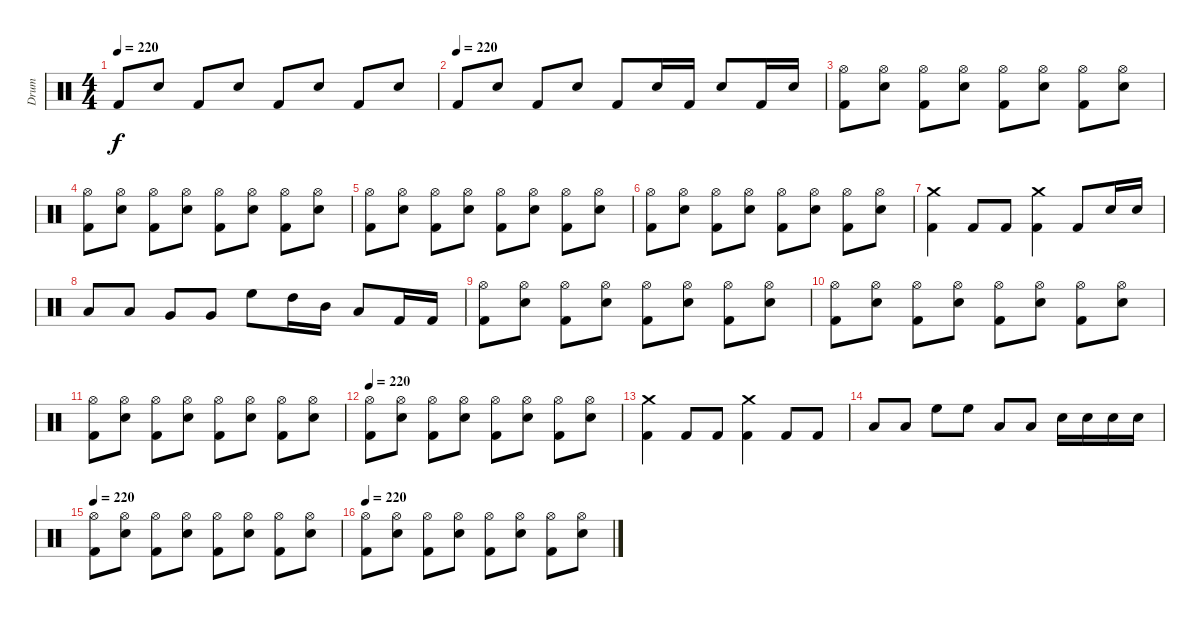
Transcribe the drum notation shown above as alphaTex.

\track ("Drum" "Drum") {instrument percussion}
\staff {score}
\articulation defaults
\ts (4 4)
\tempo 220
\clef neutral
\ks c "Kick (hit) 2".8{dy f} "Snare (hit) 2".8 "Kick (hit) 2".8 "Snare (hit) 2".8 "Kick (hit) 2".8 "Snare (hit) 2".8 "Kick (hit) 2".8 "Snare (hit) 2".8
|
\tempo (220)
"Kick (hit) 2".8 "Snare (hit) 2".8 "Kick (hit) 2".8 "Snare (hit) 2".8 "Kick (hit) 2".8 "Snare (hit) 2".16 "Kick (hit) 2".16 "Snare (hit) 2".8 "Kick (hit) 2".16 "Snare (hit) 2".16 |
("Hi-Hat (open)" "Kick (hit) 2").8 ("Hi-Hat (open)" "Snare (hit) 2").8 ("Hi-Hat (open)" "Kick (hit) 2").8 ("Hi-Hat (open)" "Snare (hit) 2").8 ("Hi-Hat (open)" "Kick (hit) 2").8 ("Hi-Hat (open)" "Snare (hit) 2").8 ("Hi-Hat (open)" "Kick (hit) 2").8 ("Hi-Hat (open)" "Snare (hit) 2").8 |
("Hi-Hat (open)" "Kick (hit) 2").8 ("Hi-Hat (open)" "Snare (hit) 2").8 ("Hi-Hat (open)" "Kick (hit) 2").8 ("Hi-Hat (open)" "Snare (hit) 2").8 ("Hi-Hat (open)" "Kick (hit) 2").8 ("Hi-Hat (open)" "Snare (hit) 2").8 ("Hi-Hat (open)" "Kick (hit) 2").8 ("Hi-Hat (open)" "Snare (hit) 2").8 |
("Hi-Hat (open)" "Kick (hit) 2").8 ("Hi-Hat (open)" "Snare (hit) 2").8 ("Hi-Hat (open)" "Kick (hit) 2").8 ("Hi-Hat (open)" "Snare (hit) 2").8 ("Hi-Hat (open)" "Kick (hit) 2").8 ("Hi-Hat (open)" "Snare (hit) 2").8 ("Hi-Hat (open)" "Kick (hit) 2").8 ("Hi-Hat (open)" "Snare (hit) 2").8 |
("Hi-Hat (open)" "Kick (hit) 2").8 ("Hi-Hat (open)" "Snare (hit) 2").8 ("Hi-Hat (open)" "Kick (hit) 2").8 ("Hi-Hat (open)" "Snare (hit) 2").8 ("Hi-Hat (open)" "Kick (hit) 2").8 ("Hi-Hat (open)" "Snare (hit) 2").8 ("Hi-Hat (open)" "Kick (hit) 2").8 ("Hi-Hat (open)" "Snare (hit) 2").8 |
("Crash medium (hit)" "Kick (hit) 2").4 "Kick (hit) 2".8 "Kick (hit) 2".8 ("Crash medium (hit)" "Kick (hit) 2").4 "Kick (hit) 2".8 "Snare (hit) 2".16 "Snare (hit) 2".16 |
"Low Floor Tom (hit)".8 "Low Floor Tom (hit)".8 "Very Low Tom (hit)".8 "Very Low Tom (hit)".8 "High Floor Tom (hit)".8 "High Tom (hit)".16 "Mid Tom (hit)".16 "Low Tom (hit)".8 "Kick (hit) 2".16 "Kick (hit) 2".16 |
("Hi-Hat (open)" "Kick (hit) 2").8 ("Hi-Hat (open)" "Snare (hit) 2").8 ("Hi-Hat (open)" "Kick (hit) 2").8 ("Hi-Hat (open)" "Snare (hit) 2").8 ("Hi-Hat (open)" "Kick (hit) 2").8 ("Hi-Hat (open)" "Snare (hit) 2").8 ("Hi-Hat (open)" "Kick (hit) 2").8 ("Hi-Hat (open)" "Snare (hit) 2").8 |
("Hi-Hat (open)" "Kick (hit) 2").8 ("Hi-Hat (open)" "Snare (hit) 2").8 ("Hi-Hat (open)" "Kick (hit) 2").8 ("Hi-Hat (open)" "Snare (hit) 2").8 ("Hi-Hat (open)" "Kick (hit) 2").8 ("Hi-Hat (open)" "Snare (hit) 2").8 ("Hi-Hat (open)" "Kick (hit) 2").8 ("Hi-Hat (open)" "Snare (hit) 2").8 |
("Hi-Hat (open)" "Kick (hit) 2").8 ("Hi-Hat (open)" "Snare (hit) 2").8 ("Hi-Hat (open)" "Kick (hit) 2").8 ("Hi-Hat (open)" "Snare (hit) 2").8 ("Hi-Hat (open)" "Kick (hit) 2").8 ("Hi-Hat (open)" "Snare (hit) 2").8 ("Hi-Hat (open)" "Kick (hit) 2").8 ("Hi-Hat (open)" "Snare (hit) 2").8 |
\tempo 220
("Hi-Hat (open)" "Kick (hit) 2").8 ("Hi-Hat (open)" "Snare (hit) 2").8 ("Hi-Hat (open)" "Kick (hit) 2").8 ("Hi-Hat (open)" "Snare (hit) 2").8 ("Hi-Hat (open)" "Kick (hit) 2").8 ("Hi-Hat (open)" "Snare (hit) 2").8 ("Hi-Hat (open)" "Kick (hit) 2").8 ("Hi-Hat (open)" "Snare (hit) 2").8 |
("Crash medium (hit)" "Kick (hit) 2").4 "Kick (hit) 2".8 "Kick (hit) 2".8 ("Crash medium (hit)" "Kick (hit) 2").4 "Kick (hit) 2".8 "Kick (hit) 2".8 |
"Low Floor Tom (hit)".8 "Low Floor Tom (hit)".8 "High Floor Tom (hit)".8 "High Floor Tom (hit)".8 "Low Floor Tom (hit)".8 "Low Floor Tom (hit)".8 "Snare (hit) 2".16 "Snare (hit) 2".16 "Snare (hit) 2".16 "Snare (hit) 2".16 |
\tempo 220
("Hi-Hat (open)" "Kick (hit) 2").8 ("Hi-Hat (open)" "Snare (hit) 2").8 ("Hi-Hat (open)" "Kick (hit) 2").8 ("Hi-Hat (open)" "Snare (hit) 2").8 ("Hi-Hat (open)" "Kick (hit) 2").8 ("Hi-Hat (open)" "Snare (hit) 2").8 ("Hi-Hat (open)" "Kick (hit) 2").8 ("Hi-Hat (open)" "Snare (hit) 2").8 |
\tempo 220
("Hi-Hat (open)" "Kick (hit) 2").8 ("Hi-Hat (open)" "Snare (hit) 2").8 ("Hi-Hat (open)" "Kick (hit) 2").8 ("Hi-Hat (open)" "Snare (hit) 2").8 ("Hi-Hat (open)" "Kick (hit) 2").8 ("Hi-Hat (open)" "Snare (hit) 2").8 ("Hi-Hat (open)" "Kick (hit) 2").8 ("Hi-Hat (open)" "Snare (hit) 2").8
